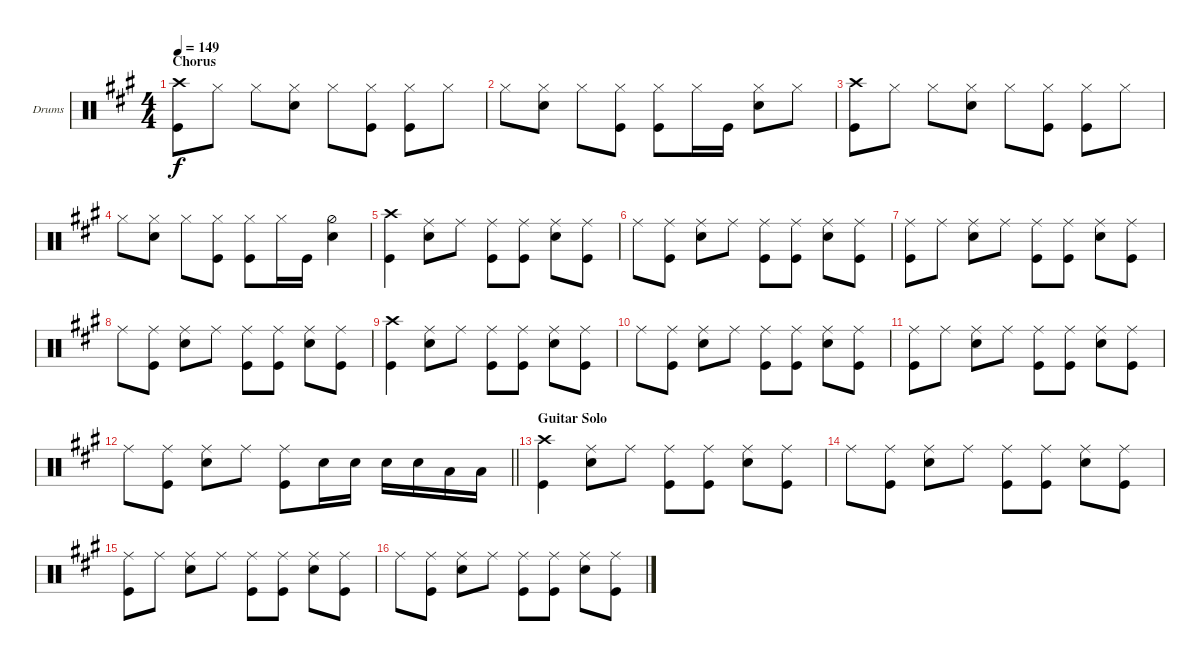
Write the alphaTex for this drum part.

\defaultSystemsLayout 4
\bracketExtendMode groupsimilarinstruments
\firstSystemTrackNameOrientation horizontal
\otherSystemsTrackNameOrientation horizontal
\track ("Drums" "Drums") {instrument percussion}
\staff {score}
\articulation defaults
\ts (4 4)
\section ("" "Chorus")
\tempo 149
\clef neutral
\ks a
("Kick (hit)" "Crash high (hit)").8{dy f} "Hi-Hat (closed)".8 "Hi-Hat (closed)".8 ("Hi-Hat (closed)" "Snare (hit) 2").8 "Hi-Hat (closed)".8 ("Hi-Hat (closed)" "Kick (hit)").8 ("Hi-Hat (closed)" "Kick (hit)").8 "Hi-Hat (closed)".8 |
"Hi-Hat (closed)".8 ("Hi-Hat (closed)" "Snare (hit) 2").8 "Hi-Hat (closed)".8 ("Hi-Hat (closed)" "Kick (hit)").8 ("Hi-Hat (closed)" "Kick (hit)").8 "Hi-Hat (closed)".16 "Kick (hit)".16 ("Hi-Hat (closed)" "Snare (hit) 2").8 "Hi-Hat (closed)".8 |
("Kick (hit)" "Crash high (hit)").8 "Hi-Hat (closed)".8 "Hi-Hat (closed)".8 ("Hi-Hat (closed)" "Snare (hit) 2").8 "Hi-Hat (closed)".8 ("Hi-Hat (closed)" "Kick (hit)").8 ("Hi-Hat (closed)" "Kick (hit)").8 "Hi-Hat (closed)".8 |
"Hi-Hat (closed)".8 ("Hi-Hat (closed)" "Snare (hit) 2").8 "Hi-Hat (closed)".8 ("Hi-Hat (closed)" "Kick (hit)").8 ("Hi-Hat (closed)" "Kick (hit)").8 "Hi-Hat (closed)".16 "Kick (hit)".16 ("Hi-Hat (half)" "Snare (hit) 2").4 |
("Kick (hit)" "Crash high (hit)").4 ("Ride (middle)" "Snare (hit) 2").8 "Ride (middle)".8 ("Ride (middle)" "Kick (hit)").8 ("Ride (middle)" "Kick (hit)").8 ("Ride (middle)" "Snare (hit) 2").8 ("Ride (middle)" "Kick (hit)").8 |
"Ride (middle)".8 ("Ride (middle)" "Kick (hit)").8 ("Ride (middle)" "Snare (hit) 2").8 "Ride (middle)".8 ("Ride (middle)" "Kick (hit)").8 ("Ride (middle)" "Kick (hit)").8 ("Ride (middle)" "Snare (hit) 2").8 ("Ride (middle)" "Kick (hit)").8 |
("Kick (hit)" "Ride (middle)").8 "Ride (middle)".8 ("Ride (middle)" "Snare (hit) 2").8 "Ride (middle)".8 ("Ride (middle)" "Kick (hit)").8 ("Ride (middle)" "Kick (hit)").8 ("Ride (middle)" "Snare (hit) 2").8 ("Ride (middle)" "Kick (hit)").8 |
"Ride (middle)".8 ("Ride (middle)" "Kick (hit)").8 ("Ride (middle)" "Snare (hit) 2").8 "Ride (middle)".8 ("Ride (middle)" "Kick (hit)").8 ("Ride (middle)" "Kick (hit)").8 ("Ride (middle)" "Snare (hit) 2").8 ("Ride (middle)" "Kick (hit)").8 |
("Kick (hit)" "Crash high (hit)").4 ("Ride (middle)" "Snare (hit) 2").8 "Ride (middle)".8 ("Ride (middle)" "Kick (hit)").8 ("Ride (middle)" "Kick (hit)").8 ("Ride (middle)" "Snare (hit) 2").8 ("Ride (middle)" "Kick (hit)").8 |
"Ride (middle)".8 ("Ride (middle)" "Kick (hit)").8 ("Ride (middle)" "Snare (hit) 2").8 "Ride (middle)".8 ("Ride (middle)" "Kick (hit)").8 ("Ride (middle)" "Kick (hit)").8 ("Ride (middle)" "Snare (hit) 2").8 ("Ride (middle)" "Kick (hit)").8 |
("Kick (hit)" "Ride (middle)").8 "Ride (middle)".8 ("Ride (middle)" "Snare (hit) 2").8 "Ride (middle)".8 ("Ride (middle)" "Kick (hit)").8 ("Ride (middle)" "Kick (hit)").8 ("Ride (middle)" "Snare (hit) 2").8 ("Ride (middle)" "Kick (hit)").8 |
\barLineRight lightlight "Ride (middle)".8
("Ride (middle)" "Kick (hit)").8 ("Ride (middle)" "Snare (hit) 2").8 "Ride (middle)".8 ("Kick (hit)" "Ride (middle)").8 "Snare (hit) 2".16 "Snare (hit) 2".16 "Snare (hit) 2".16 "Snare (hit) 2".16 "Low Tom (hit)".16 "Low Tom (hit)".16 |
\section ("" "Guitar Solo")
("Kick (hit)" "Crash high (hit)").4 ("Ride (middle)" "Snare (hit) 2").8 "Ride (middle)".8 ("Ride (middle)" "Kick (hit)").8 ("Ride (middle)" "Kick (hit)").8 ("Ride (middle)" "Snare (hit) 2").8 ("Ride (middle)" "Kick (hit)").8 |
"Ride (middle)".8 ("Ride (middle)" "Kick (hit)").8 ("Ride (middle)" "Snare (hit) 2").8 "Ride (middle)".8 ("Ride (middle)" "Kick (hit)").8 ("Ride (middle)" "Kick (hit)").8 ("Ride (middle)" "Snare (hit) 2").8 ("Ride (middle)" "Kick (hit)").8 |
("Kick (hit)" "Ride (middle)").8 "Ride (middle)".8 ("Ride (middle)" "Snare (hit) 2").8 "Ride (middle)".8 ("Ride (middle)" "Kick (hit)").8 ("Ride (middle)" "Kick (hit)").8 ("Ride (middle)" "Snare (hit) 2").8 ("Ride (middle)" "Kick (hit)").8 |
"Ride (middle)".8 ("Ride (middle)" "Kick (hit)").8 ("Ride (middle)" "Snare (hit) 2").8 "Ride (middle)".8 ("Ride (middle)" "Kick (hit)").8 ("Ride (middle)" "Kick (hit)").8 ("Ride (middle)" "Snare (hit) 2").8 ("Ride (middle)" "Kick (hit)").8
